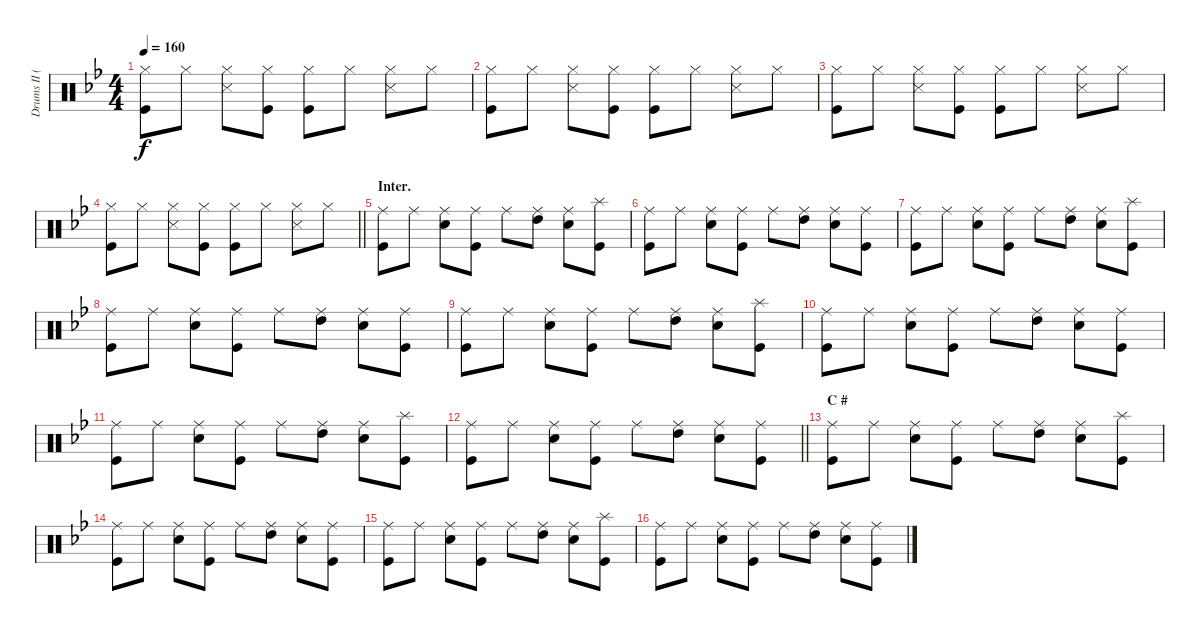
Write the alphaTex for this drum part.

\track ("Drums II (Tainaka Ritsu)" "Drums II (") {instrument percussion}
\staff {score}
\articulation defaults
\ts (4 4)
\tempo 160
\clef neutral
\ks bb
("Hi-Hat (closed)" "Kick (hit)").8{dy f} "Hi-Hat (closed)".8 ("Hi-Hat (closed)" "Snare (side stick) 3").8 ("Hi-Hat (closed)" "Kick (hit)").8 ("Hi-Hat (closed)" "Kick (hit)").8 "Hi-Hat (closed)".8 ("Hi-Hat (closed)" "Snare (side stick) 3").8 "Hi-Hat (closed)".8 |
("Hi-Hat (closed)" "Kick (hit)").8 "Hi-Hat (closed)".8 ("Hi-Hat (closed)" "Snare (side stick) 3").8 ("Hi-Hat (closed)" "Kick (hit)").8 ("Hi-Hat (closed)" "Kick (hit)").8 "Hi-Hat (closed)".8 ("Hi-Hat (closed)" "Snare (side stick) 3").8 "Hi-Hat (closed)".8 |
("Hi-Hat (closed)" "Kick (hit)").8 "Hi-Hat (closed)".8 ("Hi-Hat (closed)" "Snare (side stick) 3").8 ("Hi-Hat (closed)" "Kick (hit)").8 ("Hi-Hat (closed)" "Kick (hit)").8 "Hi-Hat (closed)".8 ("Hi-Hat (closed)" "Snare (side stick) 3").8 "Hi-Hat (closed)".8 |
\barLineRight lightlight
("Hi-Hat (closed)" "Kick (hit)").8 "Hi-Hat (closed)".8 ("Hi-Hat (closed)" "Snare (side stick) 3").8 ("Hi-Hat (closed)" "Kick (hit)").8 ("Hi-Hat (closed)" "Kick (hit)").8 "Hi-Hat (closed)".8 ("Hi-Hat (closed)" "Snare (side stick) 3").8 "Hi-Hat (closed)".8 |
\section ("" "Inter.")
("Ride (middle)" "Kick (hit)").8 "Ride (middle)".8 ("Ride (middle)" "Snare (hit) 2").8 ("Ride (middle)" "Kick (hit)").8 "Ride (middle)".8 ("Ride (middle)" "High Tom (hit)").8 ("Ride (middle)" "Snare (hit) 2").8 ("Splash (hit)" "Kick (hit)").8 |
("Ride (middle)" "Kick (hit)").8 "Ride (middle)".8 ("Ride (middle)" "Snare (hit) 2").8 ("Ride (middle)" "Kick (hit)").8 "Ride (middle)".8 ("Ride (middle)" "High Tom (hit)").8 ("Ride (middle)" "Snare (hit) 2").8 ("Ride (middle)" "Kick (hit)").8 |
("Ride (middle)" "Kick (hit)").8 "Ride (middle)".8 ("Ride (middle)" "Snare (hit) 2").8 ("Ride (middle)" "Kick (hit)").8 "Ride (middle)".8 ("Ride (middle)" "High Tom (hit)").8 ("Ride (middle)" "Snare (hit) 2").8 ("Splash (hit)" "Kick (hit)").8 |
("Ride (middle)" "Kick (hit)").8 "Ride (middle)".8 ("Ride (middle)" "Snare (hit) 2").8 ("Ride (middle)" "Kick (hit)").8 "Ride (middle)".8 ("Ride (middle)" "High Tom (hit)").8 ("Ride (middle)" "Snare (hit) 2").8 ("Ride (middle)" "Kick (hit)").8 |
("Ride (middle)" "Kick (hit)").8 "Ride (middle)".8 ("Ride (middle)" "Snare (hit) 2").8 ("Ride (middle)" "Kick (hit)").8 "Ride (middle)".8 ("Ride (middle)" "High Tom (hit)").8 ("Ride (middle)" "Snare (hit) 2").8 ("Splash (hit)" "Kick (hit)").8 |
("Ride (middle)" "Kick (hit)").8 "Ride (middle)".8 ("Ride (middle)" "Snare (hit) 2").8 ("Ride (middle)" "Kick (hit)").8 "Ride (middle)".8 ("Ride (middle)" "High Tom (hit)").8 ("Ride (middle)" "Snare (hit) 2").8 ("Ride (middle)" "Kick (hit)").8 |
("Ride (middle)" "Kick (hit)").8 "Ride (middle)".8 ("Ride (middle)" "Snare (hit) 2").8 ("Ride (middle)" "Kick (hit)").8 "Ride (middle)".8 ("Ride (middle)" "High Tom (hit)").8 ("Ride (middle)" "Snare (hit) 2").8 ("Splash (hit)" "Kick (hit)").8 |
\barLineRight lightlight
("Ride (middle)" "Kick (hit)").8 "Ride (middle)".8 ("Ride (middle)" "Snare (hit) 2").8 ("Ride (middle)" "Kick (hit)").8 "Ride (middle)".8 ("Ride (middle)" "High Tom (hit)").8 ("Ride (middle)" "Snare (hit) 2").8 ("Ride (middle)" "Kick (hit)").8 |
\section ("" "C #")
("Ride (middle)" "Kick (hit)").8 "Ride (middle)".8 ("Ride (middle)" "Snare (hit) 2").8 ("Ride (middle)" "Kick (hit)").8 "Ride (middle)".8 ("Ride (middle)" "High Tom (hit)").8 ("Ride (middle)" "Snare (hit) 2").8 ("Splash (hit)" "Kick (hit)").8 |
("Ride (middle)" "Kick (hit)").8 "Ride (middle)".8 ("Ride (middle)" "Snare (hit) 2").8 ("Ride (middle)" "Kick (hit)").8 "Ride (middle)".8 ("Ride (middle)" "High Tom (hit)").8 ("Ride (middle)" "Snare (hit) 2").8 ("Ride (middle)" "Kick (hit)").8 |
("Ride (middle)" "Kick (hit)").8 "Ride (middle)".8 ("Ride (middle)" "Snare (hit) 2").8 ("Ride (middle)" "Kick (hit)").8 "Ride (middle)".8 ("Ride (middle)" "High Tom (hit)").8 ("Ride (middle)" "Snare (hit) 2").8 ("Splash (hit)" "Kick (hit)").8 |
("Ride (middle)" "Kick (hit)").8 "Ride (middle)".8 ("Ride (middle)" "Snare (hit) 2").8 ("Ride (middle)" "Kick (hit)").8 "Ride (middle)".8 ("Ride (middle)" "High Tom (hit)").8 ("Ride (middle)" "Snare (hit) 2").8 ("Ride (middle)" "Kick (hit)").8
